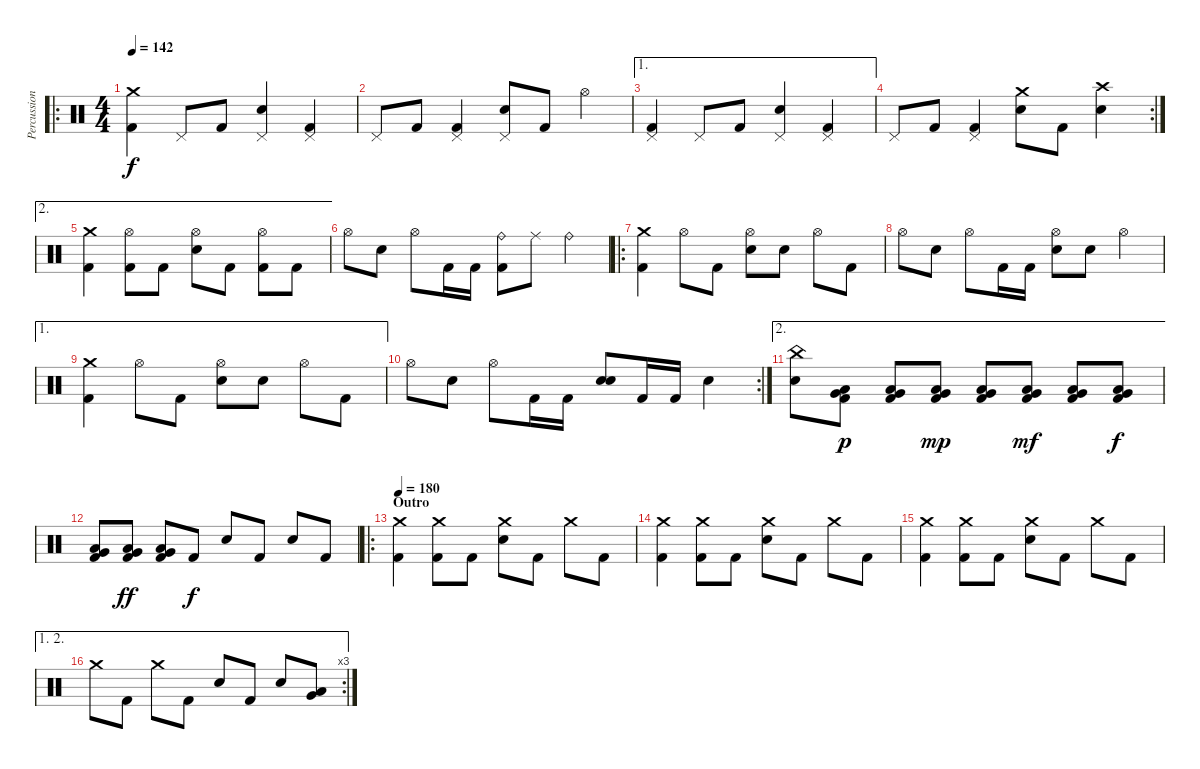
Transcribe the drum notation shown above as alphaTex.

\track ("Percussion" "Percussion") {instrument percussion}
\staff {score}
\articulation defaults
\ro
\ts (4 4)
\tempo 142
\clef neutral
\ks c
("Crash medium (hit)" "Kick (hit) 2").4{dy f} "Pedal Hi-Hat (hit)".8 "Kick (hit) 2".8 ("Pedal Hi-Hat (hit)" "Electric Snare (hit)").4 ("Pedal Hi-Hat (hit)" "Kick (hit) 2").4 |
"Pedal Hi-Hat (hit)".8 "Kick (hit) 2".8 ("Pedal Hi-Hat (hit)" "Kick (hit) 2").4 ("Pedal Hi-Hat (hit)" "Electric Snare (hit)").8 "Kick (hit) 2".8 "Hi-Hat (open)".4 |
\ae 1
("Pedal Hi-Hat (hit)" "Kick (hit) 2").4 "Pedal Hi-Hat (hit)".8 "Kick (hit) 2".8 ("Pedal Hi-Hat (hit)" "Electric Snare (hit)").4 ("Pedal Hi-Hat (hit)" "Kick (hit) 2").4 |
\rc 2 "Pedal Hi-Hat (hit)".8 "Kick (hit) 2".8
("Pedal Hi-Hat (hit)" "Kick (hit) 2").4 ("Crash medium (hit)" "Electric Snare (hit)").8 "Kick (hit) 2".8 ("Crash high (hit)" "Electric Snare (hit)").4 |
\ae 2
("Crash medium (hit)" "Kick (hit) 2").4 ("Hi-Hat (open)" "Kick (hit) 2").8 "Kick (hit) 2".8 ("Hi-Hat (open)" "Electric Snare (hit)").8 "Kick (hit) 2".8 ("Hi-Hat (open)" "Kick (hit) 2").8 "Kick (hit) 2".8 |
"Hi-Hat (open)".8 "Electric Snare (hit)".8 "Hi-Hat (open)".8 "Kick (hit) 2".16 "Kick (hit) 2".16 ("Ride (bell)" "Kick (hit) 2").8 "Ride (middle)".8 "Ride (bell)".4 |
\ro
("Crash medium (hit)" "Kick (hit) 2").4 "Hi-Hat (open)".8 "Kick (hit) 2".8 ("Hi-Hat (open)" "Electric Snare (hit)").8 "Electric Snare (hit)".8 "Hi-Hat (open)".8 "Kick (hit) 2".8 |
"Hi-Hat (open)".8 "Electric Snare (hit)".8 "Hi-Hat (open)".8 "Kick (hit) 2".16 "Kick (hit) 2".16 ("Hi-Hat (open)" "Electric Snare (hit)").8 "Electric Snare (hit)".8 "Hi-Hat (open)".4 |
\ae 1
("Crash medium (hit)" "Kick (hit) 2").4 "Hi-Hat (open)".8 "Kick (hit) 2".8 ("Hi-Hat (open)" "Electric Snare (hit)").8 "Electric Snare (hit)".8 "Hi-Hat (open)".8 "Kick (hit) 2".8 |
\rc 2 "Hi-Hat (open)".8 "Electric Snare (hit)".8 "Hi-Hat (open)".8 "Kick (hit) 2".16 "Kick (hit) 2".16
("Electric Snare (hit)" "Electric Snare (hit)").8 "Kick (hit) 2".16 "Kick (hit) 2".16 "Electric Snare (hit)".4 |
\ae 2
("China (hit)" "Electric Snare (hit)").8 ("Very Low Tom (hit)" "Low Tom (hit)" "Kick (hit) 2").8{dy p} ("Very Low Tom (hit)" "Low Tom (hit)" "Kick (hit) 2").8 ("Very Low Tom (hit)" "Low Tom (hit)" "Kick (hit) 2").8{dy mp} ("Very Low Tom (hit)" "Low Tom (hit)" "Kick (hit) 2").8 ("Very Low Tom (hit)" "Low Tom (hit)" "Kick (hit) 2").8{dy mf} ("Very Low Tom (hit)" "Low Tom (hit)" "Kick (hit) 2").8 ("Very Low Tom (hit)" "Low Tom (hit)" "Kick (hit) 2").8{dy f} |
("Very Low Tom (hit)" "Low Tom (hit)" "Kick (hit) 2").8 ("Very Low Tom (hit)" "Low Tom (hit)" "Kick (hit) 2").8{dy ff} ("Very Low Tom (hit)" "Low Tom (hit)" "Kick (hit) 2").8 "Kick (hit) 2".8{dy f} "Electric Snare (hit)".8 "Kick (hit) 2".8 "Electric Snare (hit)".8 "Kick (hit) 2".8 |
\ro
\section ("" "Outro")
\tempo 180
("Crash medium (hit)" "Kick (hit) 2").4 ("Crash medium (hit)" "Kick (hit) 2").8 "Kick (hit) 2".8 ("Crash medium (hit)" "Electric Snare (hit)").8 "Kick (hit) 2".8 "Crash medium (hit)".8 "Kick (hit) 2".8 |
("Crash medium (hit)" "Kick (hit) 2").4 ("Crash medium (hit)" "Kick (hit) 2").8 "Kick (hit) 2".8 ("Crash medium (hit)" "Electric Snare (hit)").8 "Kick (hit) 2".8 "Crash medium (hit)".8 "Kick (hit) 2".8 |
("Crash medium (hit)" "Kick (hit) 2").4 ("Crash medium (hit)" "Kick (hit) 2").8 "Kick (hit) 2".8 ("Crash medium (hit)" "Electric Snare (hit)").8 "Kick (hit) 2".8 "Crash medium (hit)".8 "Kick (hit) 2".8 |
\ae (1 2)
\rc 3 "Crash medium (hit)".8 "Kick (hit) 2".8 "Crash medium (hit)".8 "Kick (hit) 2".8 "Electric Snare (hit)".8 "Kick (hit) 2".8 "Electric Snare (hit)".8
("Very Low Tom (hit)" "Low Tom (hit)").8
